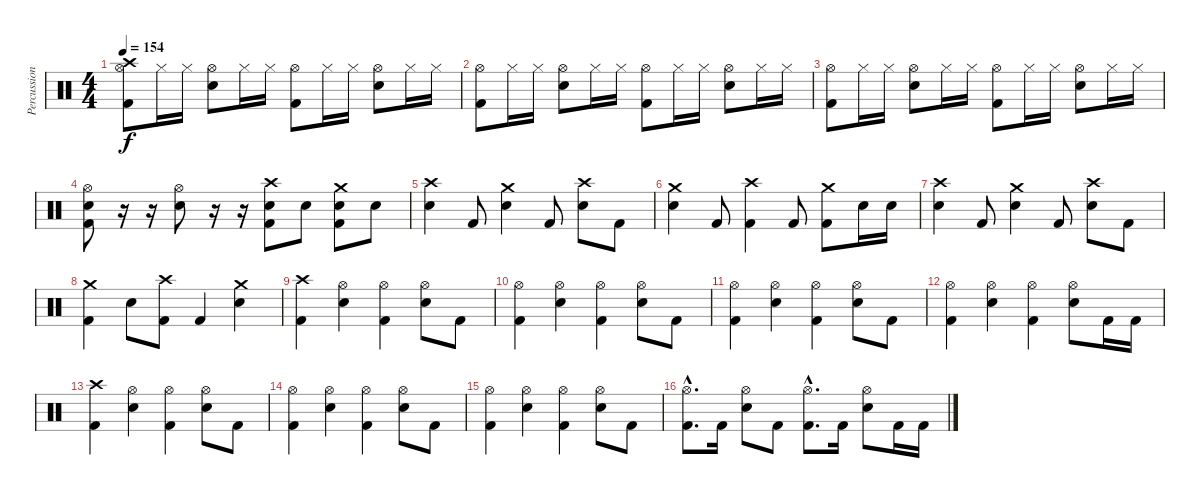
\track ("Percussion" "Percussion") {instrument percussion}
\staff {score}
\articulation defaults
\ts (4 4)
\tempo 154
\clef neutral
\ks c
("Crash high (hit)" "Hi-Hat (open)" "Kick (hit) 2").8{dy f} "Hi-Hat (closed)".16 "Hi-Hat (closed)".16 ("Hi-Hat (open)" "Snare (hit) 2").8 "Hi-Hat (closed)".16 "Hi-Hat (closed)".16 ("Hi-Hat (open)" "Kick (hit) 2").8 "Hi-Hat (closed)".16 "Hi-Hat (closed)".16 ("Hi-Hat (open)" "Snare (hit) 2").8 "Hi-Hat (closed)".16 "Hi-Hat (closed)".16 |
("Hi-Hat (open)" "Kick (hit) 2").8 "Hi-Hat (closed)".16 "Hi-Hat (closed)".16 ("Hi-Hat (open)" "Snare (hit) 2").8 "Hi-Hat (closed)".16 "Hi-Hat (closed)".16 ("Hi-Hat (open)" "Kick (hit) 2").8 "Hi-Hat (closed)".16 "Hi-Hat (closed)".16 ("Hi-Hat (open)" "Snare (hit) 2").8 "Hi-Hat (closed)".16 "Hi-Hat (closed)".16 |
("Hi-Hat (open)" "Kick (hit) 2").8 "Hi-Hat (closed)".16 "Hi-Hat (closed)".16 ("Hi-Hat (open)" "Snare (hit) 2").8 "Hi-Hat (closed)".16 "Hi-Hat (closed)".16 ("Hi-Hat (open)" "Kick (hit) 2").8 "Hi-Hat (closed)".16 "Hi-Hat (closed)".16 ("Hi-Hat (open)" "Snare (hit) 2").8 "Hi-Hat (closed)".16 "Hi-Hat (closed)".16 |
("Hi-Hat (open)" "Snare (hit) 2" "Kick (hit) 2").8 r.16 r.16 ("Hi-Hat (open)" "Snare (hit) 2").8 r.16 r.16 ("Crash high (hit)" "Snare (hit) 2" "Kick (hit) 2").8 "Snare (hit) 2".8 ("Crash medium (hit)" "Snare (hit) 2" "Kick (hit) 2").8 "Snare (hit) 2".8 |
\section ("" "")
("Crash high (hit)" "Snare (hit) 2").4 "Kick (hit) 2".8 ("Crash medium (hit)" "Snare (hit) 2").4 "Kick (hit) 2".8 ("Crash high (hit)" "Snare (hit) 2").8 "Kick (hit) 2".8 |
("Crash medium (hit)" "Snare (hit) 2").4 "Kick (hit) 2".8 ("Crash high (hit)" "Kick (hit) 2").4 "Kick (hit) 2".8 ("Crash medium (hit)" "Kick (hit) 2").8 "Snare (hit) 2".16 "Snare (hit) 2".16 |
("Crash high (hit)" "Snare (hit) 2").4 "Kick (hit) 2".8 ("Crash medium (hit)" "Snare (hit) 2").4 "Kick (hit) 2".8 ("Crash high (hit)" "Snare (hit) 2").8 "Kick (hit) 2".8 |
("Crash medium (hit)" "Kick (hit) 2").4 "Snare (hit) 2".8 ("Crash high (hit)" "Kick (hit) 2").8 "Kick (hit) 2".4 ("Crash medium (hit)" "Snare (hit) 2").4 |
\section ("" "")
("Crash high (hit)" "Kick (hit) 2").4 ("Hi-Hat (open)" "Snare (hit) 2").4 ("Hi-Hat (open)" "Kick (hit) 2").4 ("Hi-Hat (open)" "Snare (hit) 2").8 "Kick (hit) 2".8 |
("Hi-Hat (open)" "Kick (hit) 2").4 ("Hi-Hat (open)" "Snare (hit) 2").4 ("Hi-Hat (open)" "Kick (hit) 2").4 ("Hi-Hat (open)" "Snare (hit) 2").8 "Kick (hit) 2".8 |
("Hi-Hat (open)" "Kick (hit) 2").4 ("Hi-Hat (open)" "Snare (hit) 2").4 ("Hi-Hat (open)" "Kick (hit) 2").4 ("Hi-Hat (open)" "Snare (hit) 2").8 "Kick (hit) 2".8 |
("Hi-Hat (open)" "Kick (hit) 2").4 ("Hi-Hat (open)" "Snare (hit) 2").4 ("Hi-Hat (open)" "Kick (hit) 2").4 ("Hi-Hat (open)" "Snare (hit) 2").8 "Kick (hit) 2".16 "Kick (hit) 2".16 |
("Crash high (hit)" "Kick (hit) 2").4 ("Hi-Hat (open)" "Snare (hit) 2").4 ("Hi-Hat (open)" "Kick (hit) 2").4 ("Hi-Hat (open)" "Snare (hit) 2").8 "Kick (hit) 2".8 |
("Hi-Hat (open)" "Kick (hit) 2").4 ("Hi-Hat (open)" "Snare (hit) 2").4 ("Hi-Hat (open)" "Kick (hit) 2").4 ("Hi-Hat (open)" "Snare (hit) 2").8 "Kick (hit) 2".8 |
("Hi-Hat (open)" "Kick (hit) 2").4 ("Hi-Hat (open)" "Snare (hit) 2").4 ("Hi-Hat (open)" "Kick (hit) 2").4 ("Hi-Hat (open)" "Snare (hit) 2").8 "Kick (hit) 2".8 |
("Hi-Hat (open)"{hac} "Kick (hit) 2"{hac}).8{d} "Kick (hit) 2".16 ("Hi-Hat (open)" "Snare (hit) 2").8 "Kick (hit) 2".8 ("Hi-Hat (open)"{hac} "Kick (hit) 2"{hac}).8{d} "Kick (hit) 2".16 ("Hi-Hat (open)" "Snare (hit) 2").8 "Kick (hit) 2".16 "Kick (hit) 2".16
